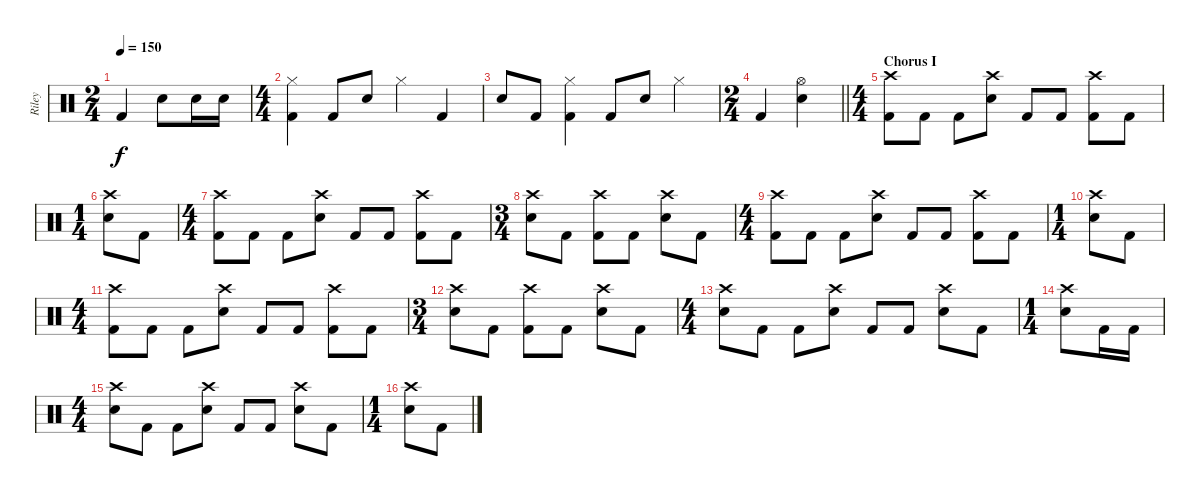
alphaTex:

\track ("Riley" "Riley") {instrument percussion}
\staff {score}
\articulation defaults
\ts (2 4)
\tempo 150
\clef neutral
\ks c "Kick (hit) 2".4{dy f} "Electric Snare (hit)".8 "Electric Snare (hit)".16 "Electric Snare (hit)".16
|
\ts (4 4)
("Hi-Hat (closed)" "Kick (hit) 2").4 "Kick (hit) 2".8 "Electric Snare (hit)".8 "Hi-Hat (closed)".4 "Kick (hit) 2".4 |
"Electric Snare (hit)".8 "Kick (hit) 2".8 ("Hi-Hat (closed)" "Kick (hit) 2").4 "Kick (hit) 2".8 "Electric Snare (hit)".8 "Hi-Hat (closed)".4 |
\ts (2 4)
\barLineRight lightlight "Kick (hit) 2".4
("Hi-Hat (open)" "Electric Snare (hit)").4 |
\ts (4 4)
\section ("" "Chorus I")
("Crash high (hit)" "Kick (hit) 2").8 "Kick (hit) 2".8 "Kick (hit) 2".8 ("Crash high (hit)" "Electric Snare (hit)").8 "Kick (hit) 2".8 "Kick (hit) 2".8 ("Crash high (hit)" "Kick (hit) 2").8 "Kick (hit) 2".8 |
\ts (1 4)
("Crash high (hit)" "Electric Snare (hit)").8 "Kick (hit) 2".8 |
\ts (4 4)
("Crash high (hit)" "Kick (hit) 2").8 "Kick (hit) 2".8 "Kick (hit) 2".8 ("Crash high (hit)" "Electric Snare (hit)").8 "Kick (hit) 2".8 "Kick (hit) 2".8 ("Crash high (hit)" "Kick (hit) 2").8 "Kick (hit) 2".8 |
\ts (3 4)
("Crash high (hit)" "Electric Snare (hit)").8 "Kick (hit) 2".8 ("Crash high (hit)" "Kick (hit) 2").8 "Kick (hit) 2".8 ("Crash high (hit)" "Electric Snare (hit)").8 "Kick (hit) 2".8 |
\ts (4 4)
("Crash high (hit)" "Kick (hit) 2").8 "Kick (hit) 2".8 "Kick (hit) 2".8 ("Crash high (hit)" "Electric Snare (hit)").8 "Kick (hit) 2".8 "Kick (hit) 2".8 ("Crash high (hit)" "Kick (hit) 2").8 "Kick (hit) 2".8 |
\ts (1 4)
("Crash high (hit)" "Electric Snare (hit)").8 "Kick (hit) 2".8 |
\ts (4 4)
("Crash high (hit)" "Kick (hit) 2").8 "Kick (hit) 2".8 "Kick (hit) 2".8 ("Crash high (hit)" "Electric Snare (hit)").8 "Kick (hit) 2".8 "Kick (hit) 2".8 ("Crash high (hit)" "Kick (hit) 2").8 "Kick (hit) 2".8 |
\ts (3 4)
("Crash high (hit)" "Electric Snare (hit)").8 "Kick (hit) 2".8 ("Crash high (hit)" "Kick (hit) 2").8 "Kick (hit) 2".8 ("Crash high (hit)" "Electric Snare (hit)").8 "Kick (hit) 2".8 |
\ts (4 4)
("Crash high (hit)" "Electric Snare (hit)").8 "Kick (hit) 2".8 "Kick (hit) 2".8 ("Crash high (hit)" "Electric Snare (hit)").8 "Kick (hit) 2".8 "Kick (hit) 2".8 ("Crash high (hit)" "Electric Snare (hit)").8 "Kick (hit) 2".8 |
\ts (1 4)
("Crash high (hit)" "Electric Snare (hit)").8 "Kick (hit) 2".16 "Kick (hit) 2".16 |
\ts (4 4)
("Crash high (hit)" "Electric Snare (hit)").8 "Kick (hit) 2".8 "Kick (hit) 2".8 ("Crash high (hit)" "Electric Snare (hit)").8 "Kick (hit) 2".8 "Kick (hit) 2".8 ("Crash high (hit)" "Electric Snare (hit)").8 "Kick (hit) 2".8 |
\ts (1 4)
("Crash high (hit)" "Electric Snare (hit)").8 "Kick (hit) 2".8
